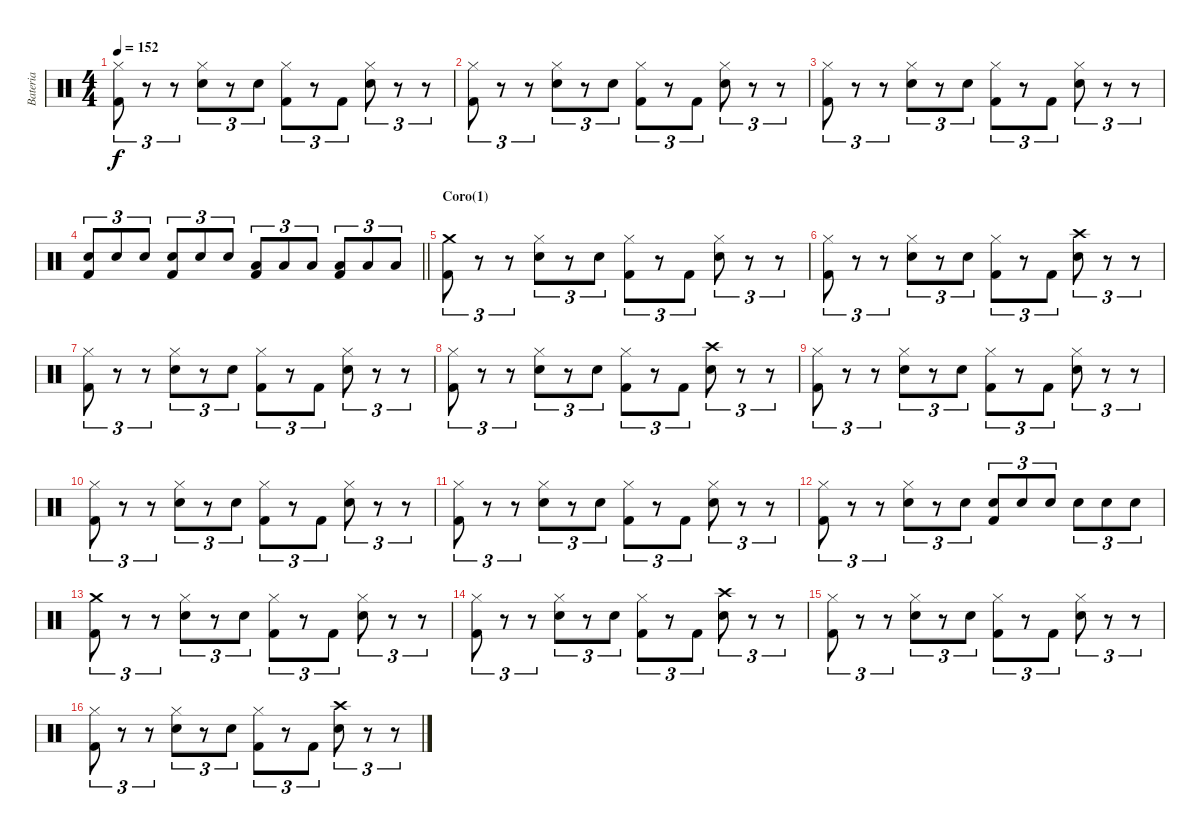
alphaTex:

\track ("Bateria" "Bateria") {instrument percussion}
\staff {score}
\articulation defaults
\ts (4 4)
\tempo 152
\clef neutral
\ks c
("Hi-Hat (closed)" "Kick (hit) 2").8{tu (3 2) dy f} r.8{tu (3 2)} r.8{tu (3 2)} ("Hi-Hat (closed)" "Snare (hit) 2").8{tu (3 2)} r.8{tu (3 2)} "Snare (hit) 2".8{tu (3 2)} ("Hi-Hat (closed)" "Kick (hit) 2").8{tu (3 2)} r.8{tu (3 2)} "Kick (hit) 2".8{tu (3 2)} ("Hi-Hat (closed)" "Snare (hit) 2").8{tu (3 2)} r.8{tu (3 2)} r.8{tu (3 2)} |
("Hi-Hat (closed)" "Kick (hit) 2").8{tu (3 2)} r.8{tu (3 2)} r.8{tu (3 2)} ("Hi-Hat (closed)" "Snare (hit) 2").8{tu (3 2)} r.8{tu (3 2)} "Snare (hit) 2".8{tu (3 2)} ("Hi-Hat (closed)" "Kick (hit) 2").8{tu (3 2)} r.8{tu (3 2)} "Kick (hit) 2".8{tu (3 2)} ("Hi-Hat (closed)" "Snare (hit) 2").8{tu (3 2)} r.8{tu (3 2)} r.8{tu (3 2)} |
("Hi-Hat (closed)" "Kick (hit) 2").8{tu (3 2)} r.8{tu (3 2)} r.8{tu (3 2)} ("Hi-Hat (closed)" "Snare (hit) 2").8{tu (3 2)} r.8{tu (3 2)} "Snare (hit) 2".8{tu (3 2)} ("Hi-Hat (closed)" "Kick (hit) 2").8{tu (3 2)} r.8{tu (3 2)} "Kick (hit) 2".8{tu (3 2)} ("Hi-Hat (closed)" "Snare (hit) 2").8{tu (3 2)} r.8{tu (3 2)} r.8{tu (3 2)} |
\barLineRight lightlight
("Snare (hit) 2" "Kick (hit) 2").8{tu (3 2)} "Snare (hit) 2".8{tu (3 2)} "Snare (hit) 2".8{tu (3 2)} ("Snare (hit) 2" "Kick (hit) 2").8{tu (3 2)} "Snare (hit) 2".8{tu (3 2)} "Snare (hit) 2".8{tu (3 2)} ("Low Tom (hit)" "Kick (hit) 2").8{tu (3 2)} "Low Tom (hit)".8{tu (3 2)} "Low Tom (hit)".8{tu (3 2)} ("Low Floor Tom (hit)" "Kick (hit) 2").8{tu (3 2)} "Low Floor Tom (hit)".8{tu (3 2)} "Low Floor Tom (hit)".8{tu (3 2)} |
\section ("" "Coro(1)")
("Crash medium (hit)" "Kick (hit) 2").8{tu (3 2)} r.8{tu (3 2)} r.8{tu (3 2)} ("Hi-Hat (closed)" "Snare (hit) 2").8{tu (3 2)} r.8{tu (3 2)} "Snare (hit) 2".8{tu (3 2)} ("Hi-Hat (closed)" "Kick (hit) 2").8{tu (3 2)} r.8{tu (3 2)} "Kick (hit) 2".8{tu (3 2)} ("Hi-Hat (closed)" "Snare (hit) 2").8{tu (3 2)} r.8{tu (3 2)} r.8{tu (3 2)} |
("Hi-Hat (closed)" "Kick (hit) 2").8{tu (3 2)} r.8{tu (3 2)} r.8{tu (3 2)} ("Hi-Hat (closed)" "Snare (hit) 2").8{tu (3 2)} r.8{tu (3 2)} "Snare (hit) 2".8{tu (3 2)} ("Hi-Hat (closed)" "Kick (hit) 2").8{tu (3 2)} r.8{tu (3 2)} "Kick (hit) 2".8{tu (3 2)} ("Crash high (hit)" "Snare (hit) 2").8{tu (3 2)} r.8{tu (3 2)} r.8{tu (3 2)} |
("Hi-Hat (closed)" "Kick (hit) 2").8{tu (3 2)} r.8{tu (3 2)} r.8{tu (3 2)} ("Hi-Hat (closed)" "Snare (hit) 2").8{tu (3 2)} r.8{tu (3 2)} "Snare (hit) 2".8{tu (3 2)} ("Hi-Hat (closed)" "Kick (hit) 2").8{tu (3 2)} r.8{tu (3 2)} "Kick (hit) 2".8{tu (3 2)} ("Hi-Hat (closed)" "Snare (hit) 2").8{tu (3 2)} r.8{tu (3 2)} r.8{tu (3 2)} |
("Hi-Hat (closed)" "Kick (hit) 2").8{tu (3 2)} r.8{tu (3 2)} r.8{tu (3 2)} ("Hi-Hat (closed)" "Snare (hit) 2").8{tu (3 2)} r.8{tu (3 2)} "Snare (hit) 2".8{tu (3 2)} ("Hi-Hat (closed)" "Kick (hit) 2").8{tu (3 2)} r.8{tu (3 2)} "Kick (hit) 2".8{tu (3 2)} ("Crash high (hit)" "Snare (hit) 2").8{tu (3 2)} r.8{tu (3 2)} r.8{tu (3 2)} |
("Hi-Hat (closed)" "Kick (hit) 2").8{tu (3 2)} r.8{tu (3 2)} r.8{tu (3 2)} ("Hi-Hat (closed)" "Snare (hit) 2").8{tu (3 2)} r.8{tu (3 2)} "Snare (hit) 2".8{tu (3 2)} ("Hi-Hat (closed)" "Kick (hit) 2").8{tu (3 2)} r.8{tu (3 2)} "Kick (hit) 2".8{tu (3 2)} ("Hi-Hat (closed)" "Snare (hit) 2").8{tu (3 2)} r.8{tu (3 2)} r.8{tu (3 2)} |
("Hi-Hat (closed)" "Kick (hit) 2").8{tu (3 2)} r.8{tu (3 2)} r.8{tu (3 2)} ("Hi-Hat (closed)" "Snare (hit) 2").8{tu (3 2)} r.8{tu (3 2)} "Snare (hit) 2".8{tu (3 2)} ("Hi-Hat (closed)" "Kick (hit) 2").8{tu (3 2)} r.8{tu (3 2)} "Kick (hit) 2".8{tu (3 2)} ("Hi-Hat (closed)" "Snare (hit) 2").8{tu (3 2)} r.8{tu (3 2)} r.8{tu (3 2)} |
("Hi-Hat (closed)" "Kick (hit) 2").8{tu (3 2)} r.8{tu (3 2)} r.8{tu (3 2)} ("Hi-Hat (closed)" "Snare (hit) 2").8{tu (3 2)} r.8{tu (3 2)} "Snare (hit) 2".8{tu (3 2)} ("Hi-Hat (closed)" "Kick (hit) 2").8{tu (3 2)} r.8{tu (3 2)} "Kick (hit) 2".8{tu (3 2)} ("Hi-Hat (closed)" "Snare (hit) 2").8{tu (3 2)} r.8{tu (3 2)} r.8{tu (3 2)} |
("Hi-Hat (closed)" "Kick (hit) 2").8{tu (3 2)} r.8{tu (3 2)} r.8{tu (3 2)} ("Hi-Hat (closed)" "Snare (hit) 2").8{tu (3 2)} r.8{tu (3 2)} "Snare (hit) 2".8{tu (3 2)} ("Snare (hit) 2" "Kick (hit) 2").8{tu (3 2)} "Snare (hit) 2".8{tu (3 2)} "Snare (hit) 2".8{tu (3 2)} "Snare (hit) 2".8{tu (3 2)} "Snare (hit) 2".8{tu (3 2)} "Snare (hit) 2".8{tu (3 2)} |
("Crash medium (hit)" "Kick (hit) 2").8{tu (3 2)} r.8{tu (3 2)} r.8{tu (3 2)} ("Hi-Hat (closed)" "Snare (hit) 2").8{tu (3 2)} r.8{tu (3 2)} "Snare (hit) 2".8{tu (3 2)} ("Hi-Hat (closed)" "Kick (hit) 2").8{tu (3 2)} r.8{tu (3 2)} "Kick (hit) 2".8{tu (3 2)} ("Hi-Hat (closed)" "Snare (hit) 2").8{tu (3 2)} r.8{tu (3 2)} r.8{tu (3 2)} |
("Hi-Hat (closed)" "Kick (hit) 2").8{tu (3 2)} r.8{tu (3 2)} r.8{tu (3 2)} ("Hi-Hat (closed)" "Snare (hit) 2").8{tu (3 2)} r.8{tu (3 2)} "Snare (hit) 2".8{tu (3 2)} ("Hi-Hat (closed)" "Kick (hit) 2").8{tu (3 2)} r.8{tu (3 2)} "Kick (hit) 2".8{tu (3 2)} ("Crash high (hit)" "Snare (hit) 2").8{tu (3 2)} r.8{tu (3 2)} r.8{tu (3 2)} |
("Hi-Hat (closed)" "Kick (hit) 2").8{tu (3 2)} r.8{tu (3 2)} r.8{tu (3 2)} ("Hi-Hat (closed)" "Snare (hit) 2").8{tu (3 2)} r.8{tu (3 2)} "Snare (hit) 2".8{tu (3 2)} ("Hi-Hat (closed)" "Kick (hit) 2").8{tu (3 2)} r.8{tu (3 2)} "Kick (hit) 2".8{tu (3 2)} ("Hi-Hat (closed)" "Snare (hit) 2").8{tu (3 2)} r.8{tu (3 2)} r.8{tu (3 2)} |
("Hi-Hat (closed)" "Kick (hit) 2").8{tu (3 2)} r.8{tu (3 2)} r.8{tu (3 2)} ("Hi-Hat (closed)" "Snare (hit) 2").8{tu (3 2)} r.8{tu (3 2)} "Snare (hit) 2".8{tu (3 2)} ("Hi-Hat (closed)" "Kick (hit) 2").8{tu (3 2)} r.8{tu (3 2)} "Kick (hit) 2".8{tu (3 2)} ("Crash high (hit)" "Snare (hit) 2").8{tu (3 2)} r.8{tu (3 2)} r.8{tu (3 2)}
